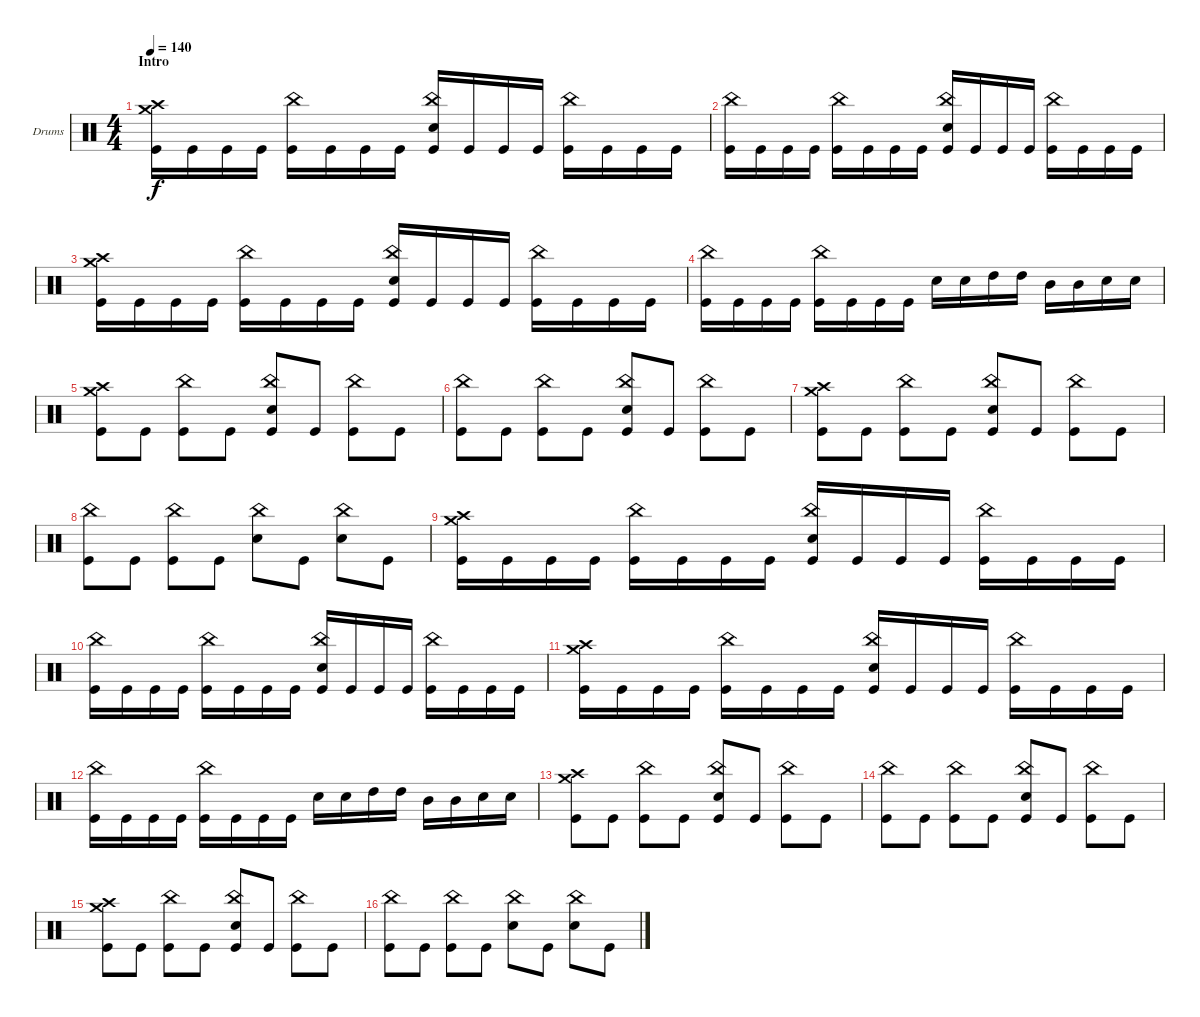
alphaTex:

\defaultSystemsLayout 4
\bracketExtendMode groupsimilarinstruments
\firstSystemTrackNameOrientation horizontal
\otherSystemsTrackNameOrientation horizontal
\track ("Drumkit" "Drums") {instrument percussion}
\staff {score}
\articulation defaults
\ts (4 4)
\section ("" "Intro")
\tempo 140
\clef neutral
\ks c
("Kick (hit)" "Crash high (hit)" "Crash medium (hit)").16{dy f} "Kick (hit)".16 "Kick (hit)".16 "Kick (hit)".16 ("Kick (hit)" "China (hit)").16 "Kick (hit)".16 "Kick (hit)".16 "Kick (hit)".16 ("Kick (hit)" "Snare (hit) 2" "China (hit)").16 "Kick (hit)".16 "Kick (hit)".16 "Kick (hit)".16 ("Kick (hit)" "China (hit)").16 "Kick (hit)".16 "Kick (hit)".16 "Kick (hit)".16 |
("Kick (hit)" "China (hit)").16 "Kick (hit)".16 "Kick (hit)".16 "Kick (hit)".16 ("Kick (hit)" "China (hit)").16 "Kick (hit)".16 "Kick (hit)".16 "Kick (hit)".16 ("Kick (hit)" "Snare (hit) 2" "China (hit)").16 "Kick (hit)".16 "Kick (hit)".16 "Kick (hit)".16 ("Kick (hit)" "China (hit)").16 "Kick (hit)".16 "Kick (hit)".16 "Kick (hit)".16 |
("Kick (hit)" "Crash high (hit)" "Crash medium (hit)").16 "Kick (hit)".16 "Kick (hit)".16 "Kick (hit)".16 ("Kick (hit)" "China (hit)").16 "Kick (hit)".16 "Kick (hit)".16 "Kick (hit)".16 ("Kick (hit)" "Snare (hit) 2" "China (hit)").16 "Kick (hit)".16 "Kick (hit)".16 "Kick (hit)".16 ("Kick (hit)" "China (hit)").16 "Kick (hit)".16 "Kick (hit)".16 "Kick (hit)".16 |
("Kick (hit)" "China (hit)").16 "Kick (hit)".16 "Kick (hit)".16 "Kick (hit)".16 ("Kick (hit)" "China (hit)").16 "Kick (hit)".16 "Kick (hit)".16 "Kick (hit)".16 "Snare (hit) 2".16 "Snare (hit) 2".16 "High Tom (hit)".16 "High Tom (hit)".16 "Mid Tom (hit)".16 "Mid Tom (hit)".16 "Snare (hit) 2".16 "Snare (hit) 2".16 |
("Kick (hit)" "Crash high (hit)" "Crash medium (hit)").8 "Kick (hit)".8 ("Kick (hit)" "China (hit)").8 "Kick (hit)".8 ("Kick (hit)" "China (hit)" "Snare (hit) 2").8 "Kick (hit)".8 ("Kick (hit)" "China (hit)").8 "Kick (hit)".8 |
("Kick (hit)" "China (hit)").8 "Kick (hit)".8 ("Kick (hit)" "China (hit)").8 "Kick (hit)".8 ("Kick (hit)" "China (hit)" "Snare (hit) 2").8 "Kick (hit)".8 ("Kick (hit)" "China (hit)").8 "Kick (hit)".8 |
("Kick (hit)" "Crash high (hit)" "Crash medium (hit)").8 "Kick (hit)".8 ("Kick (hit)" "China (hit)").8 "Kick (hit)".8 ("Kick (hit)" "China (hit)" "Snare (hit) 2").8 "Kick (hit)".8 ("Kick (hit)" "China (hit)").8 "Kick (hit)".8 |
("Kick (hit)" "China (hit)").8 "Kick (hit)".8 ("Kick (hit)" "China (hit)").8 "Kick (hit)".8 ("China (hit)" "Snare (hit) 2").8 "Kick (hit)".8 ("China (hit)" "Snare (hit) 2").8 "Kick (hit)".8 |
("Kick (hit)" "Crash high (hit)" "Crash medium (hit)").16 "Kick (hit)".16 "Kick (hit)".16 "Kick (hit)".16 ("Kick (hit)" "China (hit)").16 "Kick (hit)".16 "Kick (hit)".16 "Kick (hit)".16 ("Kick (hit)" "Snare (hit) 2" "China (hit)").16 "Kick (hit)".16 "Kick (hit)".16 "Kick (hit)".16 ("Kick (hit)" "China (hit)").16 "Kick (hit)".16 "Kick (hit)".16 "Kick (hit)".16 |
("Kick (hit)" "China (hit)").16 "Kick (hit)".16 "Kick (hit)".16 "Kick (hit)".16 ("Kick (hit)" "China (hit)").16 "Kick (hit)".16 "Kick (hit)".16 "Kick (hit)".16 ("Kick (hit)" "Snare (hit) 2" "China (hit)").16 "Kick (hit)".16 "Kick (hit)".16 "Kick (hit)".16 ("Kick (hit)" "China (hit)").16 "Kick (hit)".16 "Kick (hit)".16 "Kick (hit)".16 |
("Kick (hit)" "Crash high (hit)" "Crash medium (hit)").16 "Kick (hit)".16 "Kick (hit)".16 "Kick (hit)".16 ("Kick (hit)" "China (hit)").16 "Kick (hit)".16 "Kick (hit)".16 "Kick (hit)".16 ("Kick (hit)" "Snare (hit) 2" "China (hit)").16 "Kick (hit)".16 "Kick (hit)".16 "Kick (hit)".16 ("Kick (hit)" "China (hit)").16 "Kick (hit)".16 "Kick (hit)".16 "Kick (hit)".16 |
("Kick (hit)" "China (hit)").16 "Kick (hit)".16 "Kick (hit)".16 "Kick (hit)".16 ("Kick (hit)" "China (hit)").16 "Kick (hit)".16 "Kick (hit)".16 "Kick (hit)".16 "Snare (hit) 2".16 "Snare (hit) 2".16 "High Tom (hit)".16 "High Tom (hit)".16 "Mid Tom (hit)".16 "Mid Tom (hit)".16 "Snare (hit) 2".16 "Snare (hit) 2".16 |
("Kick (hit)" "Crash high (hit)" "Crash medium (hit)").8 "Kick (hit)".8 ("Kick (hit)" "China (hit)").8 "Kick (hit)".8 ("Kick (hit)" "China (hit)" "Snare (hit) 2").8 "Kick (hit)".8 ("Kick (hit)" "China (hit)").8 "Kick (hit)".8 |
("Kick (hit)" "China (hit)").8 "Kick (hit)".8 ("Kick (hit)" "China (hit)").8 "Kick (hit)".8 ("Kick (hit)" "China (hit)" "Snare (hit) 2").8 "Kick (hit)".8 ("Kick (hit)" "China (hit)").8 "Kick (hit)".8 |
("Kick (hit)" "Crash high (hit)" "Crash medium (hit)").8 "Kick (hit)".8 ("Kick (hit)" "China (hit)").8 "Kick (hit)".8 ("Kick (hit)" "China (hit)" "Snare (hit) 2").8 "Kick (hit)".8 ("Kick (hit)" "China (hit)").8 "Kick (hit)".8 |
("Kick (hit)" "China (hit)").8 "Kick (hit)".8 ("Kick (hit)" "China (hit)").8 "Kick (hit)".8 ("China (hit)" "Snare (hit) 2").8 "Kick (hit)".8 ("China (hit)" "Snare (hit) 2").8 "Kick (hit)".8
